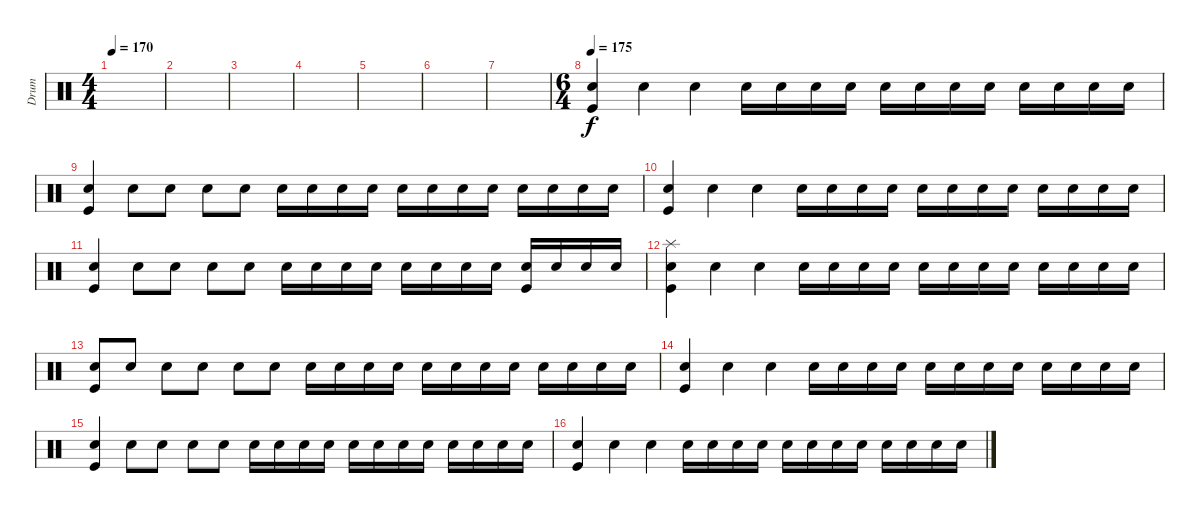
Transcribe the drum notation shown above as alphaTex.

\track ("Drum" "Drum") {instrument percussion}
\staff {score}
\articulation defaults
\ts (4 4)
\tempo 170
\clef neutral
\ks c
|
|
|
|
|
|
|
\ts (6 4)
\tempo 175
("Snare (hit) 2" "Kick (hit)").4{volume 10} "Snare (hit) 2".4 "Snare (hit) 2".4 "Snare (hit) 2".16 "Snare (hit) 2".16 "Snare (hit) 2".16 "Snare (hit) 2".16 "Snare (hit) 2".16 "Snare (hit) 2".16 "Snare (hit) 2".16 "Snare (hit) 2".16 "Snare (hit) 2".16 "Snare (hit) 2".16 "Snare (hit) 2".16 "Snare (hit) 2".16 |
("Snare (hit) 2" "Kick (hit)").4 "Snare (hit) 2".8 "Snare (hit) 2".8 "Snare (hit) 2".8 "Snare (hit) 2".8 "Snare (hit) 2".16 "Snare (hit) 2".16 "Snare (hit) 2".16 "Snare (hit) 2".16 "Snare (hit) 2".16 "Snare (hit) 2".16 "Snare (hit) 2".16 "Snare (hit) 2".16 "Snare (hit) 2".16 "Snare (hit) 2".16 "Snare (hit) 2".16 "Snare (hit) 2".16 |
("Snare (hit) 2" "Kick (hit)").4 "Snare (hit) 2".4 "Snare (hit) 2".4 "Snare (hit) 2".16 "Snare (hit) 2".16 "Snare (hit) 2".16 "Snare (hit) 2".16 "Snare (hit) 2".16 "Snare (hit) 2".16 "Snare (hit) 2".16 "Snare (hit) 2".16 "Snare (hit) 2".16 "Snare (hit) 2".16 "Snare (hit) 2".16 "Snare (hit) 2".16 |
("Snare (hit) 2" "Kick (hit)").4 "Snare (hit) 2".8 "Snare (hit) 2".8 "Snare (hit) 2".8 "Snare (hit) 2".8 "Snare (hit) 2".16 "Snare (hit) 2".16 "Snare (hit) 2".16 "Snare (hit) 2".16 "Snare (hit) 2".16 "Snare (hit) 2".16 "Snare (hit) 2".16 "Snare (hit) 2".16 ("Snare (hit) 2" "Kick (hit)").16 "Snare (hit) 2".16 "Snare (hit) 2".16 "Snare (hit) 2".16 |
("Splash (hit)" "Snare (hit) 2" "Kick (hit)").4 "Snare (hit) 2".4 "Snare (hit) 2".4 "Snare (hit) 2".16 "Snare (hit) 2".16 "Snare (hit) 2".16 "Snare (hit) 2".16 "Snare (hit) 2".16 "Snare (hit) 2".16 "Snare (hit) 2".16 "Snare (hit) 2".16 "Snare (hit) 2".16 "Snare (hit) 2".16 "Snare (hit) 2".16 "Snare (hit) 2".16 |
("Snare (hit) 2" "Kick (hit)").8 "Snare (hit) 2".8 "Snare (hit) 2".8 "Snare (hit) 2".8 "Snare (hit) 2".8 "Snare (hit) 2".8 "Snare (hit) 2".16 "Snare (hit) 2".16 "Snare (hit) 2".16 "Snare (hit) 2".16 "Snare (hit) 2".16 "Snare (hit) 2".16 "Snare (hit) 2".16 "Snare (hit) 2".16 "Snare (hit) 2".16 "Snare (hit) 2".16 "Snare (hit) 2".16 "Snare (hit) 2".16 |
("Snare (hit) 2" "Kick (hit)").4 "Snare (hit) 2".4 "Snare (hit) 2".4 "Snare (hit) 2".16 "Snare (hit) 2".16 "Snare (hit) 2".16 "Snare (hit) 2".16 "Snare (hit) 2".16 "Snare (hit) 2".16 "Snare (hit) 2".16 "Snare (hit) 2".16 "Snare (hit) 2".16 "Snare (hit) 2".16 "Snare (hit) 2".16 "Snare (hit) 2".16 |
("Snare (hit) 2" "Kick (hit)").4 "Snare (hit) 2".8 "Snare (hit) 2".8 "Snare (hit) 2".8 "Snare (hit) 2".8 "Snare (hit) 2".16 "Snare (hit) 2".16 "Snare (hit) 2".16 "Snare (hit) 2".16 "Snare (hit) 2".16 "Snare (hit) 2".16 "Snare (hit) 2".16 "Snare (hit) 2".16 "Snare (hit) 2".16 "Snare (hit) 2".16 "Snare (hit) 2".16 "Snare (hit) 2".16 |
("Snare (hit) 2" "Kick (hit)").4 "Snare (hit) 2".4 "Snare (hit) 2".4 "Snare (hit) 2".16 "Snare (hit) 2".16 "Snare (hit) 2".16 "Snare (hit) 2".16 "Snare (hit) 2".16 "Snare (hit) 2".16 "Snare (hit) 2".16 "Snare (hit) 2".16 "Snare (hit) 2".16 "Snare (hit) 2".16 "Snare (hit) 2".16 "Snare (hit) 2".16
